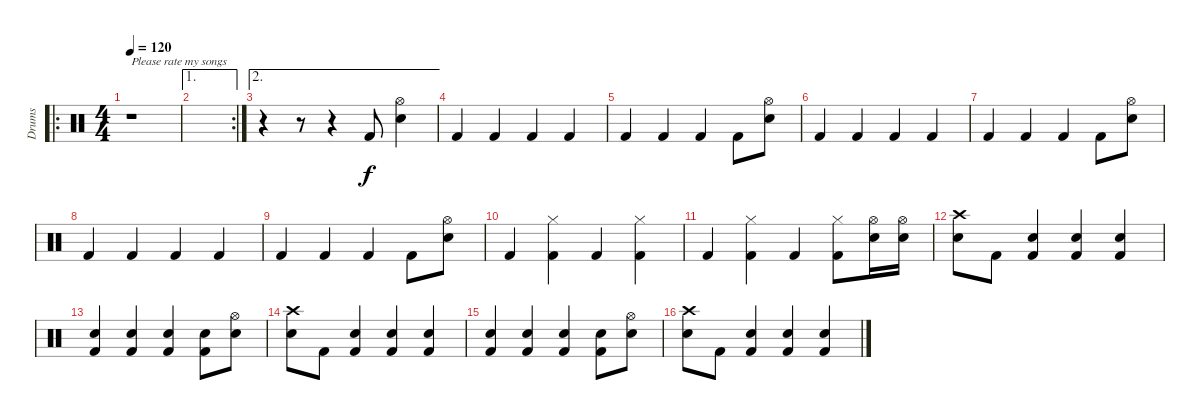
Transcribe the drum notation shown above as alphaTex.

\track ("Drums" "Drums") {instrument percussion}
\staff {score}
\articulation defaults
\ro
\ts (4 4)
\tempo 120
\clef neutral
\ks c
r.1{txt "Please rate my songs" dy f} |
\ae 1
\rc 2
|
\ae 2
r.4 r.8 r.4 "Kick (hit) 2".8 ("Hi-Hat (open)" "Electric Snare (hit)").4 |
"Kick (hit) 2".4 "Kick (hit) 2".4 "Kick (hit) 2".4 "Kick (hit) 2".4 |
"Kick (hit) 2".4 "Kick (hit) 2".4 "Kick (hit) 2".4 "Kick (hit) 2".8 ("Hi-Hat (open)" "Electric Snare (hit)").8 |
"Kick (hit) 2".4 "Kick (hit) 2".4 "Kick (hit) 2".4 "Kick (hit) 2".4 |
"Kick (hit) 2".4 "Kick (hit) 2".4 "Kick (hit) 2".4 "Kick (hit) 2".8 ("Hi-Hat (open)" "Electric Snare (hit)").8 |
"Kick (hit) 2".4 "Kick (hit) 2".4 "Kick (hit) 2".4 "Kick (hit) 2".4 |
"Kick (hit) 2".4 "Kick (hit) 2".4 "Kick (hit) 2".4 "Kick (hit) 2".8 ("Hi-Hat (open)" "Electric Snare (hit)").8 |
"Kick (hit) 2".4 ("Kick (hit) 2" "Hi-Hat (closed)").4 "Kick (hit) 2".4 ("Kick (hit) 2" "Hi-Hat (closed)").4 |
"Kick (hit) 2".4 ("Kick (hit) 2" "Hi-Hat (closed)").4 "Kick (hit) 2".4 ("Kick (hit) 2" "Hi-Hat (closed)").8 ("Hi-Hat (open)" "Electric Snare (hit)").16 ("Hi-Hat (open)" "Electric Snare (hit)").16 |
("Electric Snare (hit)" "Crash high (hit)").8 "Kick (hit) 2".8 ("Kick (hit) 2" "Electric Snare (hit)").4 ("Kick (hit) 2" "Electric Snare (hit)").4 ("Kick (hit) 2" "Electric Snare (hit)").4 |
("Kick (hit) 2" "Electric Snare (hit)").4 ("Kick (hit) 2" "Electric Snare (hit)").4 ("Kick (hit) 2" "Electric Snare (hit)").4 ("Kick (hit) 2" "Electric Snare (hit)").8 ("Hi-Hat (open)" "Electric Snare (hit)").8 |
("Electric Snare (hit)" "Crash high (hit)").8 "Kick (hit) 2".8 ("Kick (hit) 2" "Electric Snare (hit)").4 ("Kick (hit) 2" "Electric Snare (hit)").4 ("Kick (hit) 2" "Electric Snare (hit)").4 |
("Kick (hit) 2" "Electric Snare (hit)").4 ("Kick (hit) 2" "Electric Snare (hit)").4 ("Kick (hit) 2" "Electric Snare (hit)").4 ("Kick (hit) 2" "Electric Snare (hit)").8 ("Hi-Hat (open)" "Electric Snare (hit)").8 |
("Electric Snare (hit)" "Crash high (hit)").8 "Kick (hit) 2".8 ("Kick (hit) 2" "Electric Snare (hit)").4 ("Kick (hit) 2" "Electric Snare (hit)").4 ("Kick (hit) 2" "Electric Snare (hit)").4
